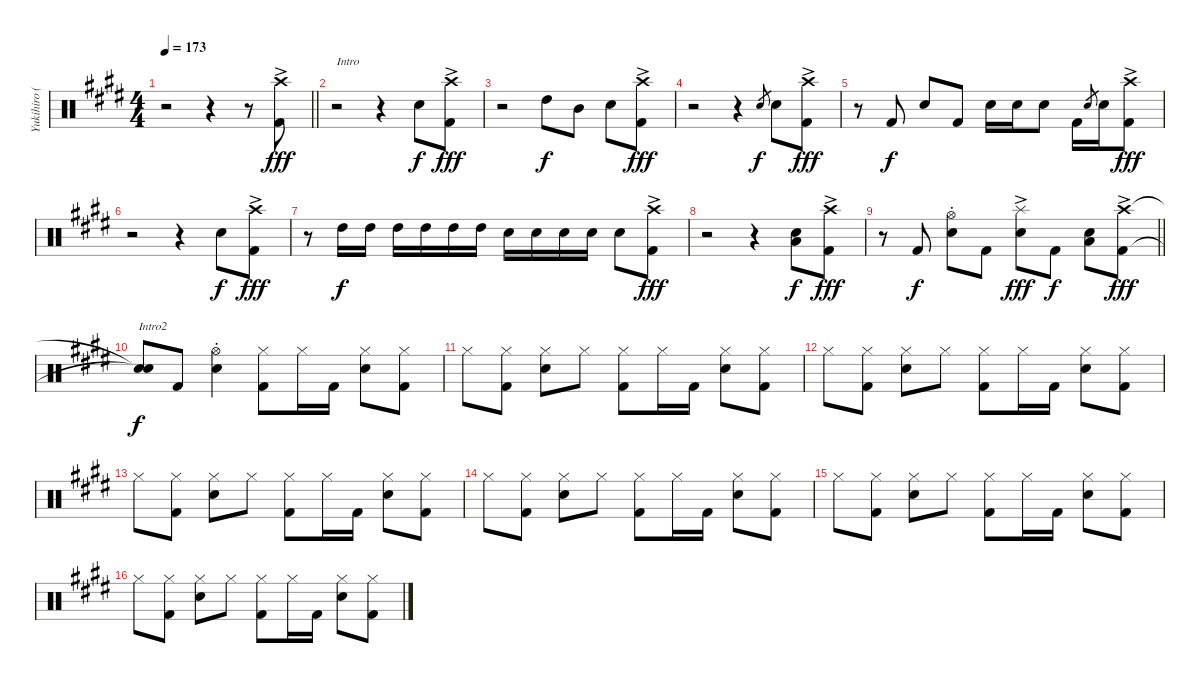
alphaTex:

\track ("Yukihiro (Drums)" "Yukihiro (") {instrument percussion}
\staff {score}
\articulation defaults
\ts (4 4)
\tempo 173
\clef neutral
\barLineRight lightlight
\ks e
r.2{dy fff} r.4 r.8 ("Crash high (hit)"{ac} "Kick (hit) 2").8 |
r.2{txt "Intro"} r.4 "Electric Snare (hit)".8{dy f} ("Crash high (hit)"{ac} "Kick (hit) 2").8{dy fff} |
r.2 "High Tom (hit)".8{dy f} "Mid Tom (hit)".8 "Electric Snare (hit)".8 ("Crash high (hit)"{ac} "Kick (hit) 2").8{dy fff} |
r.2 r.4 "Electric Snare (hit)".8{gr dy f} "Electric Snare (hit)".8 ("Crash high (hit)"{ac} "Kick (hit) 2").8{dy fff} |
r.8 "Kick (hit) 2".8{dy f} "Electric Snare (hit)".8 "Kick (hit) 2".8 "Electric Snare (hit)".16 "Electric Snare (hit)".16 "Electric Snare (hit)".8 "Kick (hit) 2".16 "Electric Snare (hit)".8{gr} "Electric Snare (hit)".16 ("Crash high (hit)"{ac} "Kick (hit) 2").8{dy fff} |
r.2 r.4 "Electric Snare (hit)".8{dy f} ("Crash high (hit)"{ac} "Kick (hit) 2").8{dy fff} |
r.8 "High Tom (hit)".16{dy f} "High Tom (hit)".16 "High Tom (hit)".16 "High Tom (hit)".16 "High Tom (hit)".16 "High Tom (hit)".16 "Electric Snare (hit)".16 "Electric Snare (hit)".16 "Electric Snare (hit)".16 "Electric Snare (hit)".16 "Electric Snare (hit)".8 ("Crash high (hit)"{ac} "Kick (hit) 2").8{dy fff} |
r.2 r.4 ("Electric Snare (hit)" "Low Tom (hit)").8{dy f} ("Crash high (hit)"{ac} "Kick (hit) 2").8{dy fff} |
\barLineRight lightlight
r.8 "Kick (hit) 2".8{dy f} ("Hi-Hat (open)"{st} "Electric Snare (hit)").8 "Kick (hit) 2".8 ("Splash (hit)"{ac} "Electric Snare (hit)").8{dy fff} "Kick (hit) 2".8{dy f} ("Electric Snare (hit)" "Low Tom (hit)").8 ("Crash high (hit)"{ac} "Kick (hit) 2").8{dy fff} |
("Snare (hit)"{t} "Snare (hit)"{t}).8{txt "Intro2" dy f} "Kick (hit) 2".8 ("Hi-Hat (open)"{st} "Electric Snare (hit)").4 ("Hi-Hat (closed)" "Kick (hit) 2").8 "Hi-Hat (closed)".16 "Kick (hit) 2".16 ("Hi-Hat (closed)" "Electric Snare (hit)").8 ("Hi-Hat (closed)" "Kick (hit) 2").8 |
"Hi-Hat (closed)".8 ("Hi-Hat (closed)" "Kick (hit) 2").8 ("Hi-Hat (closed)" "Electric Snare (hit)").8 "Hi-Hat (closed)".8 ("Hi-Hat (closed)" "Kick (hit) 2").8 "Hi-Hat (closed)".16 "Kick (hit) 2".16 ("Hi-Hat (closed)" "Electric Snare (hit)").8 ("Hi-Hat (closed)" "Kick (hit) 2").8 |
"Hi-Hat (closed)".8 ("Hi-Hat (closed)" "Kick (hit) 2").8 ("Hi-Hat (closed)" "Electric Snare (hit)").8 "Hi-Hat (closed)".8 ("Hi-Hat (closed)" "Kick (hit) 2").8 "Hi-Hat (closed)".16 "Kick (hit) 2".16 ("Hi-Hat (closed)" "Electric Snare (hit)").8 ("Hi-Hat (closed)" "Kick (hit) 2").8 |
"Hi-Hat (closed)".8 ("Hi-Hat (closed)" "Kick (hit) 2").8 ("Hi-Hat (closed)" "Electric Snare (hit)").8 "Hi-Hat (closed)".8 ("Hi-Hat (closed)" "Kick (hit) 2").8 "Hi-Hat (closed)".16 "Kick (hit) 2".16 ("Hi-Hat (closed)" "Electric Snare (hit)").8 ("Hi-Hat (closed)" "Kick (hit) 2").8 |
"Hi-Hat (closed)".8 ("Hi-Hat (closed)" "Kick (hit) 2").8 ("Hi-Hat (closed)" "Electric Snare (hit)").8 "Hi-Hat (closed)".8 ("Hi-Hat (closed)" "Kick (hit) 2").8 "Hi-Hat (closed)".16 "Kick (hit) 2".16 ("Hi-Hat (closed)" "Electric Snare (hit)").8 ("Hi-Hat (closed)" "Kick (hit) 2").8 |
"Hi-Hat (closed)".8 ("Hi-Hat (closed)" "Kick (hit) 2").8 ("Hi-Hat (closed)" "Electric Snare (hit)").8 "Hi-Hat (closed)".8 ("Hi-Hat (closed)" "Kick (hit) 2").8 "Hi-Hat (closed)".16 "Kick (hit) 2".16 ("Hi-Hat (closed)" "Electric Snare (hit)").8 ("Hi-Hat (closed)" "Kick (hit) 2").8 |
"Hi-Hat (closed)".8 ("Hi-Hat (closed)" "Kick (hit) 2").8 ("Hi-Hat (closed)" "Electric Snare (hit)").8 "Hi-Hat (closed)".8 ("Hi-Hat (closed)" "Kick (hit) 2").8 "Hi-Hat (closed)".16 "Kick (hit) 2".16 ("Hi-Hat (closed)" "Electric Snare (hit)").8 ("Hi-Hat (closed)" "Kick (hit) 2").8
